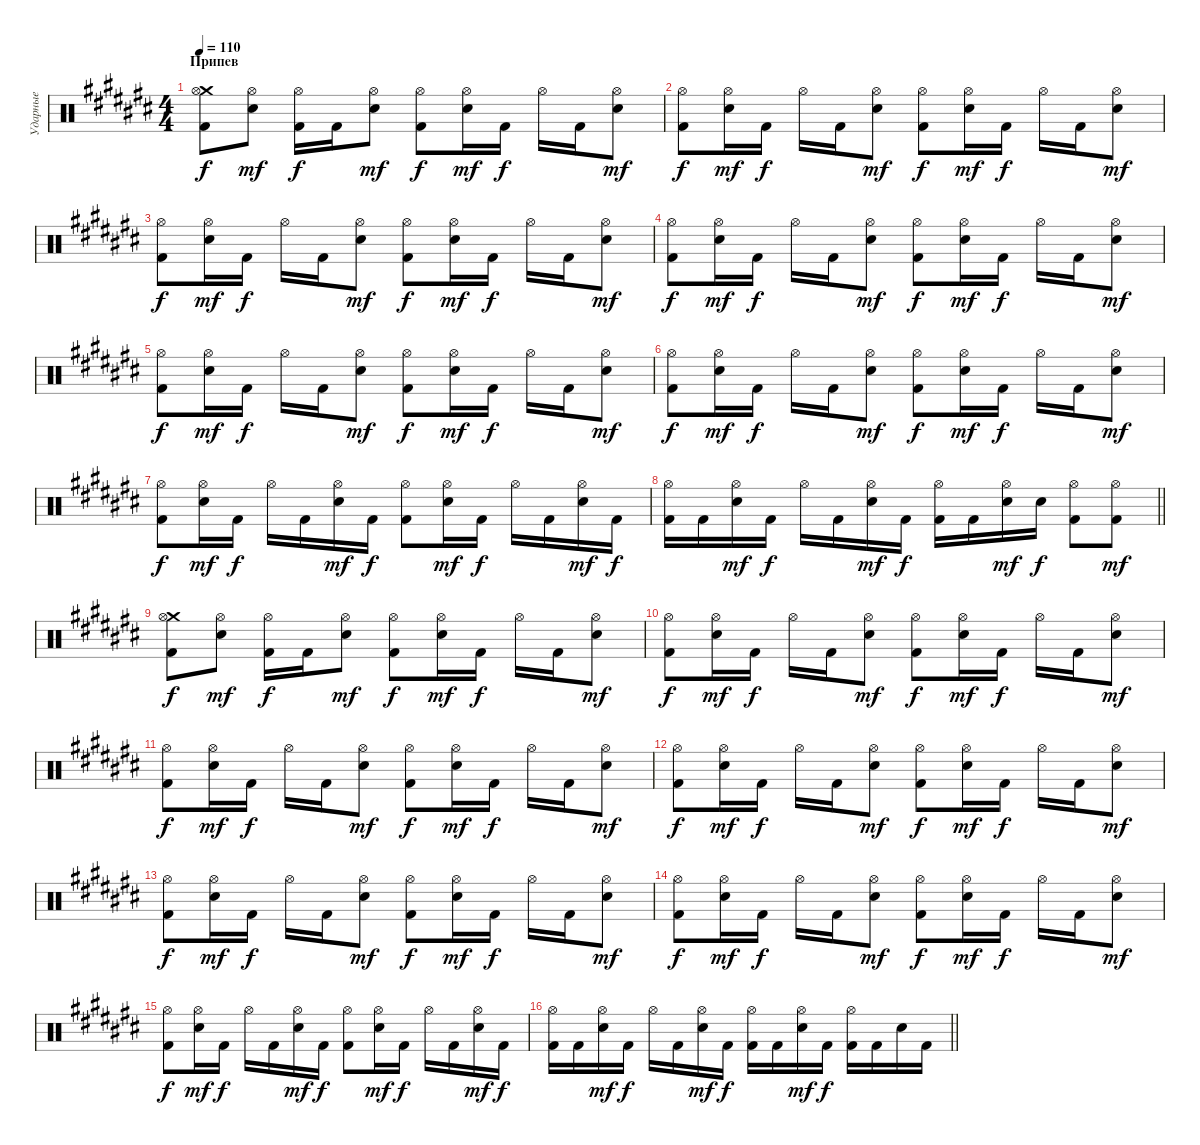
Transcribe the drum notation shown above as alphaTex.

\track ("Ударные" "Ударные") {instrument percussion}
\staff {score}
\articulation defaults
\ts (4 4)
\section ("" "Припев")
\tempo 110
\clef neutral
\ks a#minor
("Crash medium (hit)" "Kick (hit) 2" "Hi-Hat (open)").8{dy f} ("Electric Snare (hit)" "Hi-Hat (open)").8{dy mf} ("Kick (hit) 2" "Hi-Hat (open)").16{dy f} "Kick (hit) 2".16 ("Electric Snare (hit)" "Hi-Hat (open)").8{dy mf} ("Kick (hit) 2" "Hi-Hat (open)").8{dy f} ("Electric Snare (hit)" "Hi-Hat (open)").16{dy mf} "Kick (hit) 2".16{dy f} "Hi-Hat (open)".16 "Kick (hit) 2".16 ("Electric Snare (hit)" "Hi-Hat (open)").8{dy mf} |
("Kick (hit) 2" "Hi-Hat (open)").8{dy f} ("Electric Snare (hit)" "Hi-Hat (open)").16{dy mf} "Kick (hit) 2".16{dy f} "Hi-Hat (open)".16 "Kick (hit) 2".16 ("Electric Snare (hit)" "Hi-Hat (open)").8{dy mf} ("Kick (hit) 2" "Hi-Hat (open)").8{dy f} ("Electric Snare (hit)" "Hi-Hat (open)").16{dy mf} "Kick (hit) 2".16{dy f} "Hi-Hat (open)".16 "Kick (hit) 2".16 ("Electric Snare (hit)" "Hi-Hat (open)").8{dy mf} |
("Kick (hit) 2" "Hi-Hat (open)").8{dy f} ("Electric Snare (hit)" "Hi-Hat (open)").16{dy mf} "Kick (hit) 2".16{dy f} "Hi-Hat (open)".16 "Kick (hit) 2".16 ("Electric Snare (hit)" "Hi-Hat (open)").8{dy mf} ("Kick (hit) 2" "Hi-Hat (open)").8{dy f} ("Electric Snare (hit)" "Hi-Hat (open)").16{dy mf} "Kick (hit) 2".16{dy f} "Hi-Hat (open)".16 "Kick (hit) 2".16 ("Electric Snare (hit)" "Hi-Hat (open)").8{dy mf} |
("Kick (hit) 2" "Hi-Hat (open)").8{dy f} ("Electric Snare (hit)" "Hi-Hat (open)").16{dy mf} "Kick (hit) 2".16{dy f} "Hi-Hat (open)".16 "Kick (hit) 2".16 ("Electric Snare (hit)" "Hi-Hat (open)").8{dy mf} ("Kick (hit) 2" "Hi-Hat (open)").8{dy f} ("Electric Snare (hit)" "Hi-Hat (open)").16{dy mf} "Kick (hit) 2".16{dy f} "Hi-Hat (open)".16 "Kick (hit) 2".16 ("Electric Snare (hit)" "Hi-Hat (open)").8{dy mf} |
("Kick (hit) 2" "Hi-Hat (open)").8{dy f} ("Electric Snare (hit)" "Hi-Hat (open)").16{dy mf} "Kick (hit) 2".16{dy f} "Hi-Hat (open)".16 "Kick (hit) 2".16 ("Electric Snare (hit)" "Hi-Hat (open)").8{dy mf} ("Kick (hit) 2" "Hi-Hat (open)").8{dy f} ("Electric Snare (hit)" "Hi-Hat (open)").16{dy mf} "Kick (hit) 2".16{dy f} "Hi-Hat (open)".16 "Kick (hit) 2".16 ("Electric Snare (hit)" "Hi-Hat (open)").8{dy mf} |
("Kick (hit) 2" "Hi-Hat (open)").8{dy f} ("Electric Snare (hit)" "Hi-Hat (open)").16{dy mf} "Kick (hit) 2".16{dy f} "Hi-Hat (open)".16 "Kick (hit) 2".16 ("Electric Snare (hit)" "Hi-Hat (open)").8{dy mf} ("Kick (hit) 2" "Hi-Hat (open)").8{dy f} ("Electric Snare (hit)" "Hi-Hat (open)").16{dy mf} "Kick (hit) 2".16{dy f} "Hi-Hat (open)".16 "Kick (hit) 2".16 ("Electric Snare (hit)" "Hi-Hat (open)").8{dy mf} |
("Kick (hit) 2" "Hi-Hat (open)").8{dy f} ("Electric Snare (hit)" "Hi-Hat (open)").16{dy mf} "Kick (hit) 2".16{dy f} "Hi-Hat (open)".16 "Kick (hit) 2".16 ("Electric Snare (hit)" "Hi-Hat (open)").16{dy mf} "Kick (hit) 2".16{dy f} ("Kick (hit) 2" "Hi-Hat (open)").8 ("Electric Snare (hit)" "Hi-Hat (open)").16{dy mf} "Kick (hit) 2".16{dy f} "Hi-Hat (open)".16 "Kick (hit) 2".16 ("Electric Snare (hit)" "Hi-Hat (open)").16{dy mf} "Kick (hit) 2".16{dy f} |
\barLineRight lightlight
("Kick (hit) 2" "Hi-Hat (open)").16 "Kick (hit) 2".16 ("Electric Snare (hit)" "Hi-Hat (open)").16{dy mf} "Kick (hit) 2".16{dy f} "Hi-Hat (open)".16 "Kick (hit) 2".16 ("Electric Snare (hit)" "Hi-Hat (open)").16{dy mf} "Kick (hit) 2".16{dy f} ("Kick (hit) 2" "Hi-Hat (open)").16 "Kick (hit) 2".16 ("Electric Snare (hit)" "Hi-Hat (open)").16{dy mf} "Electric Snare (hit)".16{dy f} ("Kick (hit) 2" "Hi-Hat (open)").8 ("Kick (hit) 2" "Hi-Hat (open)").8{dy mf} |
("Crash medium (hit)" "Kick (hit) 2" "Hi-Hat (open)").8{dy f} ("Electric Snare (hit)" "Hi-Hat (open)").8{dy mf} ("Kick (hit) 2" "Hi-Hat (open)").16{dy f} "Kick (hit) 2".16 ("Electric Snare (hit)" "Hi-Hat (open)").8{dy mf} ("Kick (hit) 2" "Hi-Hat (open)").8{dy f} ("Electric Snare (hit)" "Hi-Hat (open)").16{dy mf} "Kick (hit) 2".16{dy f} "Hi-Hat (open)".16 "Kick (hit) 2".16 ("Electric Snare (hit)" "Hi-Hat (open)").8{dy mf} |
("Kick (hit) 2" "Hi-Hat (open)").8{dy f} ("Electric Snare (hit)" "Hi-Hat (open)").16{dy mf} "Kick (hit) 2".16{dy f} "Hi-Hat (open)".16 "Kick (hit) 2".16 ("Electric Snare (hit)" "Hi-Hat (open)").8{dy mf} ("Kick (hit) 2" "Hi-Hat (open)").8{dy f} ("Electric Snare (hit)" "Hi-Hat (open)").16{dy mf} "Kick (hit) 2".16{dy f} "Hi-Hat (open)".16 "Kick (hit) 2".16 ("Electric Snare (hit)" "Hi-Hat (open)").8{dy mf} |
("Kick (hit) 2" "Hi-Hat (open)").8{dy f} ("Electric Snare (hit)" "Hi-Hat (open)").16{dy mf} "Kick (hit) 2".16{dy f} "Hi-Hat (open)".16 "Kick (hit) 2".16 ("Electric Snare (hit)" "Hi-Hat (open)").8{dy mf} ("Kick (hit) 2" "Hi-Hat (open)").8{dy f} ("Electric Snare (hit)" "Hi-Hat (open)").16{dy mf} "Kick (hit) 2".16{dy f} "Hi-Hat (open)".16 "Kick (hit) 2".16 ("Electric Snare (hit)" "Hi-Hat (open)").8{dy mf} |
("Kick (hit) 2" "Hi-Hat (open)").8{dy f} ("Electric Snare (hit)" "Hi-Hat (open)").16{dy mf} "Kick (hit) 2".16{dy f} "Hi-Hat (open)".16 "Kick (hit) 2".16 ("Electric Snare (hit)" "Hi-Hat (open)").8{dy mf} ("Kick (hit) 2" "Hi-Hat (open)").8{dy f} ("Electric Snare (hit)" "Hi-Hat (open)").16{dy mf} "Kick (hit) 2".16{dy f} "Hi-Hat (open)".16 "Kick (hit) 2".16 ("Electric Snare (hit)" "Hi-Hat (open)").8{dy mf} |
("Kick (hit) 2" "Hi-Hat (open)").8{dy f} ("Electric Snare (hit)" "Hi-Hat (open)").16{dy mf} "Kick (hit) 2".16{dy f} "Hi-Hat (open)".16 "Kick (hit) 2".16 ("Electric Snare (hit)" "Hi-Hat (open)").8{dy mf} ("Kick (hit) 2" "Hi-Hat (open)").8{dy f} ("Electric Snare (hit)" "Hi-Hat (open)").16{dy mf} "Kick (hit) 2".16{dy f} "Hi-Hat (open)".16 "Kick (hit) 2".16 ("Electric Snare (hit)" "Hi-Hat (open)").8{dy mf} |
("Kick (hit) 2" "Hi-Hat (open)").8{dy f} ("Electric Snare (hit)" "Hi-Hat (open)").16{dy mf} "Kick (hit) 2".16{dy f} "Hi-Hat (open)".16 "Kick (hit) 2".16 ("Electric Snare (hit)" "Hi-Hat (open)").8{dy mf} ("Kick (hit) 2" "Hi-Hat (open)").8{dy f} ("Electric Snare (hit)" "Hi-Hat (open)").16{dy mf} "Kick (hit) 2".16{dy f} "Hi-Hat (open)".16 "Kick (hit) 2".16 ("Electric Snare (hit)" "Hi-Hat (open)").8{dy mf} |
("Kick (hit) 2" "Hi-Hat (open)").8{dy f} ("Electric Snare (hit)" "Hi-Hat (open)").16{dy mf} "Kick (hit) 2".16{dy f} "Hi-Hat (open)".16 "Kick (hit) 2".16 ("Electric Snare (hit)" "Hi-Hat (open)").16{dy mf} "Kick (hit) 2".16{dy f} ("Kick (hit) 2" "Hi-Hat (open)").8 ("Electric Snare (hit)" "Hi-Hat (open)").16{dy mf} "Kick (hit) 2".16{dy f} "Hi-Hat (open)".16 "Kick (hit) 2".16 ("Electric Snare (hit)" "Hi-Hat (open)").16{dy mf} "Kick (hit) 2".16{dy f} |
\barLineRight lightlight
("Kick (hit) 2" "Hi-Hat (open)").16 "Kick (hit) 2".16 ("Electric Snare (hit)" "Hi-Hat (open)").16{dy mf} "Kick (hit) 2".16{dy f} "Hi-Hat (open)".16 "Kick (hit) 2".16 ("Electric Snare (hit)" "Hi-Hat (open)").16{dy mf} "Kick (hit) 2".16{dy f} ("Kick (hit) 2" "Hi-Hat (open)").16 "Kick (hit) 2".16 ("Electric Snare (hit)" "Hi-Hat (open)").16{dy mf} "Kick (hit) 2".16{dy f} ("Kick (hit) 2" "Hi-Hat (open)").16 "Kick (hit) 2".16 "Electric Snare (hit)".16 "Kick (hit) 2".16
